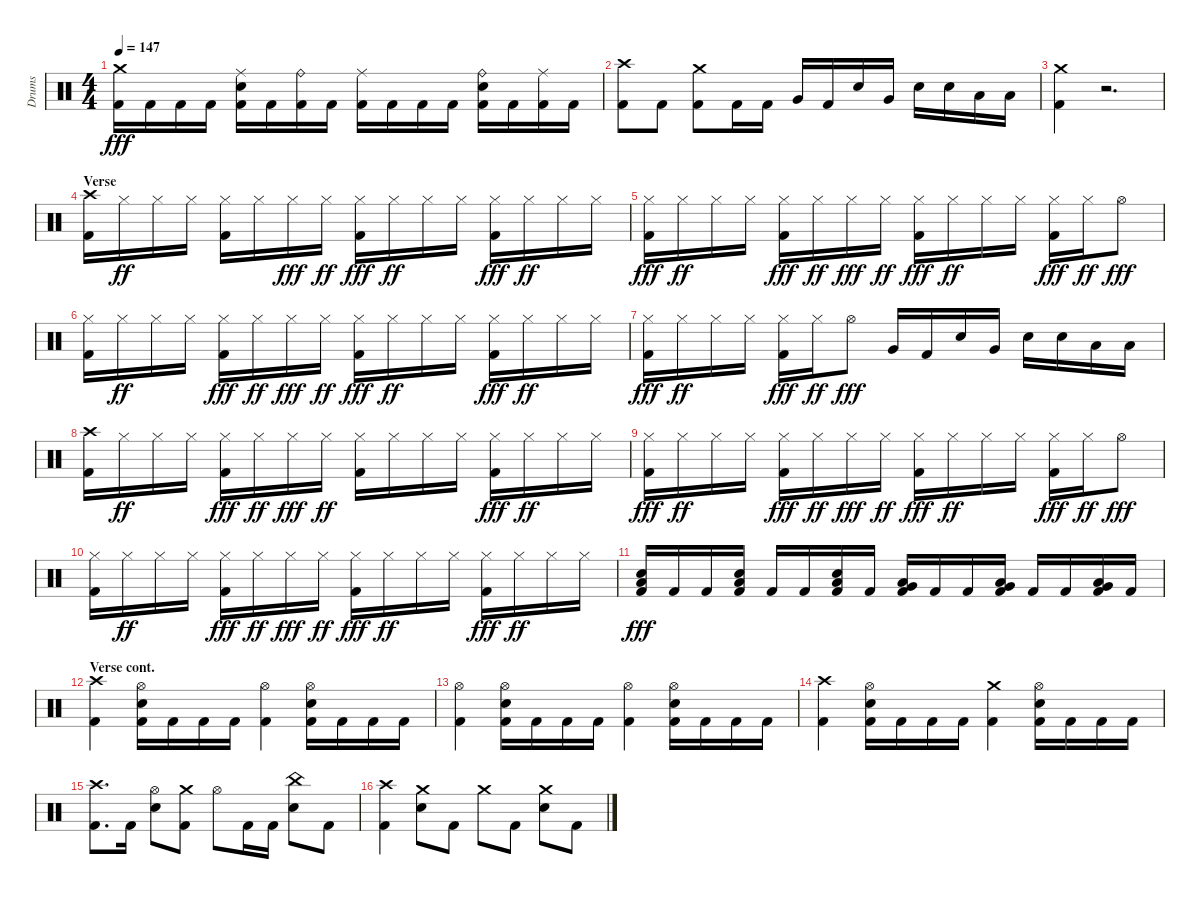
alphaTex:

\track ("Drums" "Drums") {instrument percussion}
\staff {score}
\articulation defaults
\ts (4 4)
\tempo 147
\clef neutral
\ks aminor
("Kick (hit) 2" "Crash medium (hit)").16{dy fff} "Kick (hit) 2".16 "Kick (hit) 2".16 "Kick (hit) 2".16 ("Ride (middle)" "Kick (hit) 2" "Snare (hit) 2").16 "Kick (hit) 2".16 ("Kick (hit) 2" "Ride (bell)").16 "Kick (hit) 2".16 ("Kick (hit) 2" "Ride (middle)").16 "Kick (hit) 2".16 "Kick (hit) 2".16 "Kick (hit) 2".16 ("Snare (hit) 2" "Kick (hit) 2" "Ride (bell)").16 "Kick (hit) 2".16 ("Kick (hit) 2" "Ride (middle)").16 "Kick (hit) 2".16 |
("Crash high (hit)" "Kick (hit) 2").8 "Kick (hit) 2".8 ("Kick (hit) 2" "Crash medium (hit)").8 "Kick (hit) 2".16 "Kick (hit) 2".16 "Very Low Tom (hit)".16 "Kick (hit) 2".16 "Snare (hit) 2".16 "Very Low Tom (hit)".16 "Snare (hit) 2".16 "Snare (hit) 2".16 "Low Floor Tom (hit)".16 "Low Floor Tom (hit)".16 |
("Crash medium (hit)" "Kick (hit) 2").4 r.2{d} |
\section ("" "Verse")
("Kick (hit) 2" "Crash high (hit)").16 "Hi-Hat (closed)".16{dy ff} "Hi-Hat (closed)".16 "Hi-Hat (closed)".16 ("Kick (hit) 2" "Hi-Hat (closed)").16 "Hi-Hat (closed)".16 "Hi-Hat (closed)".16{dy fff} "Hi-Hat (closed)".16{dy ff} ("Hi-Hat (closed)" "Kick (hit) 2").16{dy fff} "Hi-Hat (closed)".16{dy ff} "Hi-Hat (closed)".16 "Hi-Hat (closed)".16 ("Kick (hit) 2" "Hi-Hat (closed)").16{dy fff} "Hi-Hat (closed)".16{dy ff} "Hi-Hat (closed)".16 "Hi-Hat (closed)".16 |
("Kick (hit) 2" "Hi-Hat (closed)").16{dy fff} "Hi-Hat (closed)".16{dy ff} "Hi-Hat (closed)".16 "Hi-Hat (closed)".16 ("Hi-Hat (closed)" "Kick (hit) 2").16{dy fff} "Hi-Hat (closed)".16{dy ff} "Hi-Hat (closed)".16{dy fff} "Hi-Hat (closed)".16{dy ff} ("Kick (hit) 2" "Hi-Hat (closed)").16{dy fff} "Hi-Hat (closed)".16{dy ff} "Hi-Hat (closed)".16 "Hi-Hat (closed)".16 ("Kick (hit) 2" "Hi-Hat (closed)").16{dy fff} "Hi-Hat (closed)".16{dy ff} "Hi-Hat (open)".8{dy fff} |
("Kick (hit) 2" "Hi-Hat (closed)").16 "Hi-Hat (closed)".16{dy ff} "Hi-Hat (closed)".16 "Hi-Hat (closed)".16 ("Kick (hit) 2" "Hi-Hat (closed)").16{dy fff} "Hi-Hat (closed)".16{dy ff} "Hi-Hat (closed)".16{dy fff} "Hi-Hat (closed)".16{dy ff} ("Kick (hit) 2" "Hi-Hat (closed)").16{dy fff} "Hi-Hat (closed)".16{dy ff} "Hi-Hat (closed)".16 "Hi-Hat (closed)".16 ("Kick (hit) 2" "Hi-Hat (closed)").16{dy fff} "Hi-Hat (closed)".16{dy ff} "Hi-Hat (closed)".16 "Hi-Hat (closed)".16 |
("Kick (hit) 2" "Hi-Hat (closed)").16{dy fff} "Hi-Hat (closed)".16{dy ff} "Hi-Hat (closed)".16 "Hi-Hat (closed)".16 ("Hi-Hat (closed)" "Kick (hit) 2").16{dy fff} "Hi-Hat (closed)".16{dy ff} "Hi-Hat (open)".8{dy fff} "Very Low Tom (hit)".16 "Kick (hit) 2".16 "Snare (hit) 2".16 "Very Low Tom (hit)".16 "Snare (hit) 2".16 "Snare (hit) 2".16 "Low Floor Tom (hit)".16 "Low Floor Tom (hit)".16 |
("Crash high (hit)" "Kick (hit) 2").16 "Hi-Hat (closed)".16{dy ff} "Hi-Hat (closed)".16 "Hi-Hat (closed)".16 ("Hi-Hat (closed)" "Kick (hit) 2").16{dy fff} "Hi-Hat (closed)".16{dy ff} "Hi-Hat (closed)".16{dy fff} "Hi-Hat (closed)".16{dy ff} ("Hi-Hat (closed)" "Kick (hit) 2").16 "Hi-Hat (closed)".16 "Hi-Hat (closed)".16 "Hi-Hat (closed)".16 ("Kick (hit) 2" "Hi-Hat (closed)").16{dy fff} "Hi-Hat (closed)".16{dy ff} "Hi-Hat (closed)".16 "Hi-Hat (closed)".16 |
("Kick (hit) 2" "Hi-Hat (closed)").16{dy fff} "Hi-Hat (closed)".16{dy ff} "Hi-Hat (closed)".16 "Hi-Hat (closed)".16 ("Kick (hit) 2" "Hi-Hat (closed)").16{dy fff} "Hi-Hat (closed)".16{dy ff} "Hi-Hat (closed)".16{dy fff} "Hi-Hat (closed)".16{dy ff} ("Hi-Hat (closed)" "Kick (hit) 2").16{dy fff} "Hi-Hat (closed)".16{dy ff} "Hi-Hat (closed)".16 "Hi-Hat (closed)".16 ("Kick (hit) 2" "Hi-Hat (closed)").16{dy fff} "Hi-Hat (closed)".16{dy ff} "Hi-Hat (open)".8{dy fff} |
("Kick (hit) 2" "Hi-Hat (closed)").16 "Hi-Hat (closed)".16{dy ff} "Hi-Hat (closed)".16 "Hi-Hat (closed)".16 ("Hi-Hat (closed)" "Kick (hit) 2").16{dy fff} "Hi-Hat (closed)".16{dy ff} "Hi-Hat (closed)".16{dy fff} "Hi-Hat (closed)".16{dy ff} ("Kick (hit) 2" "Hi-Hat (closed)").16{dy fff} "Hi-Hat (closed)".16{dy ff} "Hi-Hat (closed)".16 "Hi-Hat (closed)".16 ("Hi-Hat (closed)" "Kick (hit) 2").16{dy fff} "Hi-Hat (closed)".16{dy ff} "Hi-Hat (closed)".16 "Hi-Hat (closed)".16 |
("Low Floor Tom (hit)" "Kick (hit) 2" "Snare (hit) 2").16{dy fff} "Kick (hit) 2".16 "Kick (hit) 2".16 ("Snare (hit) 2" "Kick (hit) 2" "Low Floor Tom (hit)").16 "Kick (hit) 2".16 "Kick (hit) 2".16 ("Snare (hit) 2" "Kick (hit) 2" "Low Floor Tom (hit)").16 "Kick (hit) 2".16 ("Kick (hit) 2" "Very Low Tom (hit)" "Low Floor Tom (hit)").16 "Kick (hit) 2".16 "Kick (hit) 2".16 ("Very Low Tom (hit)" "Kick (hit) 2" "Low Floor Tom (hit)").16 "Kick (hit) 2".16 "Kick (hit) 2".16 ("Very Low Tom (hit)" "Kick (hit) 2" "Low Floor Tom (hit)").16 "Kick (hit) 2".16 |
\section ("" "Verse cont.")
("Crash high (hit)" "Kick (hit) 2").4 ("Kick (hit) 2" "Snare (hit) 2" "Hi-Hat (open)").16 "Kick (hit) 2".16 "Kick (hit) 2".16 "Kick (hit) 2".16 ("Kick (hit) 2" "Hi-Hat (open)").4 ("Kick (hit) 2" "Snare (hit) 2" "Hi-Hat (open)").16 "Kick (hit) 2".16 "Kick (hit) 2".16 "Kick (hit) 2".16 |
("Kick (hit) 2" "Hi-Hat (open)").4 ("Kick (hit) 2" "Snare (hit) 2" "Hi-Hat (open)").16 "Kick (hit) 2".16 "Kick (hit) 2".16 "Kick (hit) 2".16 ("Kick (hit) 2" "Hi-Hat (open)").4 ("Kick (hit) 2" "Hi-Hat (open)" "Snare (hit) 2").16 "Kick (hit) 2".16 "Kick (hit) 2".16 "Kick (hit) 2".16 |
("Kick (hit) 2" "Crash high (hit)").4 ("Snare (hit) 2" "Kick (hit) 2" "Hi-Hat (open)").16 "Kick (hit) 2".16 "Kick (hit) 2".16 "Kick (hit) 2".16 ("Kick (hit) 2" "Crash medium (hit)").4 ("Kick (hit) 2" "Snare (hit) 2" "Hi-Hat (open)").16 "Kick (hit) 2".16 "Kick (hit) 2".16 "Kick (hit) 2".16 |
("Kick (hit) 2" "Crash high (hit)").8{d} "Kick (hit) 2".16 ("Hi-Hat (open)" "Snare (hit) 2").8 ("Kick (hit) 2" "Crash medium (hit)").8 "Hi-Hat (open)".8 "Kick (hit) 2".16 "Kick (hit) 2".16 ("Snare (hit) 2" "China (hit)").8 "Kick (hit) 2".8 |
("Kick (hit) 2" "Crash high (hit)").4 ("Crash medium (hit)" "Snare (hit) 2").8 "Kick (hit) 2".8 "Crash medium (hit)".8 "Kick (hit) 2".8 ("Crash medium (hit)" "Snare (hit) 2").8 "Kick (hit) 2".8
